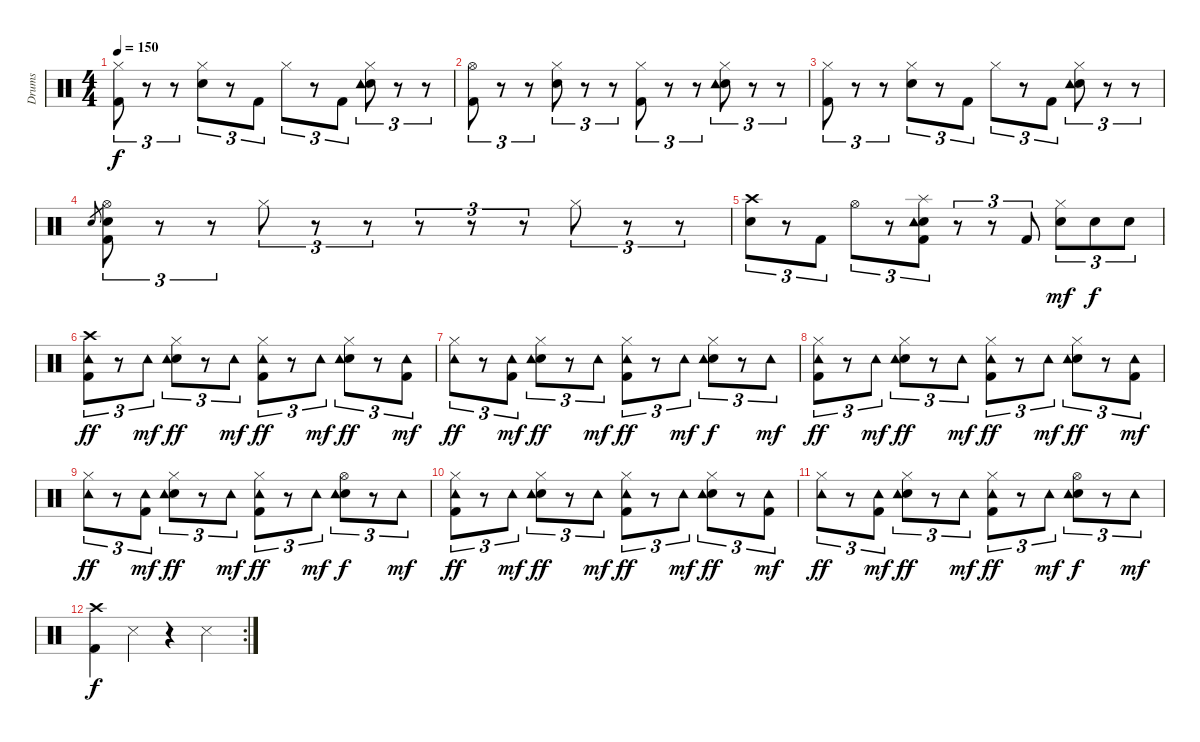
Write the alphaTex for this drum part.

\track ("Drums" "Drums") {instrument percussion}
\staff {score}
\articulation defaults
\ts (4 4)
\tempo 150
\clef neutral
\ks c
("Hi-Hat (closed)" "Kick (hit) 2").8{tu (3 2) dy f} r.8{tu (3 2)} r.8{tu (3 2)} ("Hi-Hat (closed)" "Electric Snare (hit)").8{tu (3 2)} r.8{tu (3 2)} "Kick (hit) 2".8{tu (3 2)} "Hi-Hat (closed)".8{tu (3 2)} r.8{tu (3 2)} "Kick (hit) 2".8{tu (3 2)} ("Hi-Hat (closed)" "Electric Snare (hit)" "Tambourine (hit)").8{tu (3 2)} r.8{tu (3 2)} r.8{tu (3 2)} |
("Hi-Hat (open)" "Kick (hit) 2").8{tu (3 2)} r.8{tu (3 2)} r.8{tu (3 2)} ("Hi-Hat (closed)" "Electric Snare (hit)").8{tu (3 2)} r.8{tu (3 2)} r.8{tu (3 2)} ("Hi-Hat (closed)" "Kick (hit) 2").8{tu (3 2)} r.8{tu (3 2)} r.8{tu (3 2)} ("Hi-Hat (closed)" "Electric Snare (hit)" "Tambourine (hit)").8{tu (3 2)} r.8{tu (3 2)} r.8{tu (3 2)} |
("Hi-Hat (closed)" "Kick (hit) 2").8{tu (3 2)} r.8{tu (3 2)} r.8{tu (3 2)} ("Hi-Hat (closed)" "Electric Snare (hit)").8{tu (3 2)} r.8{tu (3 2)} "Kick (hit) 2".8{tu (3 2)} "Hi-Hat (closed)".8{tu (3 2)} r.8{tu (3 2)} "Kick (hit) 2".8{tu (3 2)} ("Hi-Hat (closed)" "Electric Snare (hit)" "Tambourine (hit)").8{tu (3 2)} r.8{tu (3 2)} r.8{tu (3 2)} |
"Electric Snare (hit)".8{gr} ("Hi-Hat (open)" "Electric Snare (hit)" "Kick (hit) 2").8{tu (3 2)} r.8{tu (3 2)} r.8{tu (3 2)} "Hi-Hat (closed)".8{tu (3 2)} r.8{tu (3 2)} r.8{tu (3 2)} r.8{tu (3 2)} r.8{tu (3 2)} r.8{tu (3 2)} "Hi-Hat (closed)".8{tu (3 2)} r.8{tu (3 2)} r.8{tu (3 2)} |
("Crash high (hit)" "Electric Snare (hit)").8{tu (3 2)} r.8{tu (3 2)} "Kick (hit) 2".8{tu (3 2)} "Hi-Hat (open)".8{tu (3 2)} r.8{tu (3 2)} ("Splash (hit)" "Electric Snare (hit)" "Kick (hit) 2" "Tambourine (hit)").8{tu (3 2)} r.8{tu (3 2)} r.8{tu (3 2)} "Kick (hit) 2".8{tu (3 2)} ("Hi-Hat (closed)" "Electric Snare (hit)").8{tu (3 2) dy mf} "Electric Snare (hit)".8{tu (3 2) dy f} "Electric Snare (hit)".8{tu (3 2)} |
("Crash high (hit)" "Kick (hit) 2" "Tambourine (hit)").8{tu (3 2) dy ff} r.8{tu (3 2)} "Tambourine (hit)".8{tu (3 2) dy mf} ("Hi-Hat (closed)" "Electric Snare (hit)" "Tambourine (hit)").8{tu (3 2) dy ff} r.8{tu (3 2)} "Tambourine (hit)".8{tu (3 2) dy mf} ("Hi-Hat (closed)" "Kick (hit) 2" "Tambourine (hit)").8{tu (3 2) dy ff} r.8{tu (3 2)} "Tambourine (hit)".8{tu (3 2) dy mf} ("Hi-Hat (closed)" "Electric Snare (hit)" "Tambourine (hit)").8{tu (3 2) dy ff} r.8{tu (3 2)} ("Kick (hit) 2" "Tambourine (hit)").8{tu (3 2) dy mf} |
("Hi-Hat (closed)" "Tambourine (hit)").8{tu (3 2) dy ff} r.8{tu (3 2)} ("Kick (hit) 2" "Tambourine (hit)").8{tu (3 2) dy mf} ("Hi-Hat (closed)" "Electric Snare (hit)" "Tambourine (hit)").8{tu (3 2) dy ff} r.8{tu (3 2)} "Tambourine (hit)".8{tu (3 2) dy mf} ("Hi-Hat (closed)" "Kick (hit) 2" "Tambourine (hit)").8{tu (3 2) dy ff} r.8{tu (3 2)} "Tambourine (hit)".8{tu (3 2) dy mf} ("Hi-Hat (closed)" "Electric Snare (hit)" "Tambourine (hit)").8{tu (3 2) dy f} r.8{tu (3 2)} "Tambourine (hit)".8{tu (3 2) dy mf} |
("Hi-Hat (closed)" "Kick (hit) 2" "Tambourine (hit)").8{tu (3 2) dy ff} r.8{tu (3 2)} "Tambourine (hit)".8{tu (3 2) dy mf} ("Hi-Hat (closed)" "Electric Snare (hit)" "Tambourine (hit)").8{tu (3 2) dy ff} r.8{tu (3 2)} "Tambourine (hit)".8{tu (3 2) dy mf} ("Hi-Hat (closed)" "Kick (hit) 2" "Tambourine (hit)").8{tu (3 2) dy ff} r.8{tu (3 2)} "Tambourine (hit)".8{tu (3 2) dy mf} ("Hi-Hat (closed)" "Electric Snare (hit)" "Tambourine (hit)").8{tu (3 2) dy ff} r.8{tu (3 2)} ("Kick (hit) 2" "Tambourine (hit)").8{tu (3 2) dy mf} |
("Hi-Hat (closed)" "Tambourine (hit)").8{tu (3 2) dy ff} r.8{tu (3 2)} ("Kick (hit) 2" "Tambourine (hit)").8{tu (3 2) dy mf} ("Hi-Hat (closed)" "Electric Snare (hit)" "Tambourine (hit)").8{tu (3 2) dy ff} r.8{tu (3 2)} "Tambourine (hit)".8{tu (3 2) dy mf} ("Hi-Hat (closed)" "Kick (hit) 2" "Tambourine (hit)").8{tu (3 2) dy ff} r.8{tu (3 2)} "Tambourine (hit)".8{tu (3 2) dy mf} ("Hi-Hat (open)" "Electric Snare (hit)" "Tambourine (hit)").8{tu (3 2) dy f} r.8{tu (3 2)} "Tambourine (hit)".8{tu (3 2) dy mf} |
("Hi-Hat (closed)" "Kick (hit) 2" "Tambourine (hit)").8{tu (3 2) dy ff} r.8{tu (3 2)} "Tambourine (hit)".8{tu (3 2) dy mf} ("Hi-Hat (closed)" "Electric Snare (hit)" "Tambourine (hit)").8{tu (3 2) dy ff} r.8{tu (3 2)} "Tambourine (hit)".8{tu (3 2) dy mf} ("Hi-Hat (closed)" "Kick (hit) 2" "Tambourine (hit)").8{tu (3 2) dy ff} r.8{tu (3 2)} "Tambourine (hit)".8{tu (3 2) dy mf} ("Hi-Hat (closed)" "Electric Snare (hit)" "Tambourine (hit)").8{tu (3 2) dy ff} r.8{tu (3 2)} ("Kick (hit) 2" "Tambourine (hit)").8{tu (3 2) dy mf} |
("Hi-Hat (closed)" "Tambourine (hit)").8{tu (3 2) dy ff} r.8{tu (3 2)} ("Kick (hit) 2" "Tambourine (hit)").8{tu (3 2) dy mf} ("Hi-Hat (closed)" "Electric Snare (hit)" "Tambourine (hit)").8{tu (3 2) dy ff} r.8{tu (3 2)} "Tambourine (hit)".8{tu (3 2) dy mf} ("Hi-Hat (closed)" "Kick (hit) 2" "Tambourine (hit)").8{tu (3 2) dy ff} r.8{tu (3 2)} "Tambourine (hit)".8{tu (3 2) dy mf} ("Hi-Hat (open)" "Electric Snare (hit)" "Tambourine (hit)").8{tu (3 2) dy f} r.8{tu (3 2)} "Tambourine (hit)".8{tu (3 2) dy mf} |
\rc 2
("Crash high (hit)" "Kick (hit) 2").4{dy f} "Snare (side stick) 3".4 r.4 "Snare (side stick) 3".4
